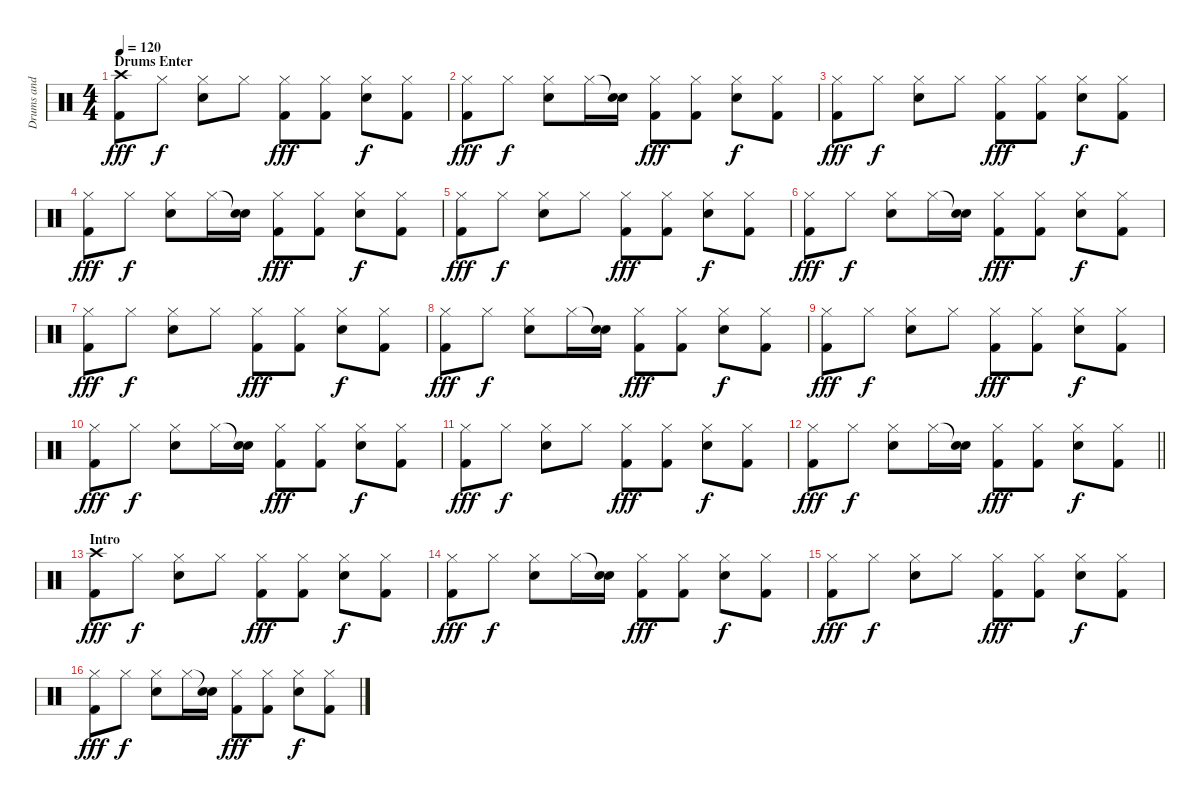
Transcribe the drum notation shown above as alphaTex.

\track ("Drums and Percussion" "Drums and ") {instrument percussion}
\staff {score}
\articulation defaults
\ts (4 4)
\section ("" "Drums Enter")
\tempo 120
\clef neutral
\ks c
("Crash high (hit)" "Kick (hit) 2").8{dy fff} "Hi-Hat (closed)".8{dy f} ("Hi-Hat (closed)" "Snare (hit) 2").8 "Hi-Hat (closed)".8 ("Hi-Hat (closed)" "Kick (hit) 2").8{dy fff} ("Hi-Hat (closed)" "Kick (hit) 2").8 ("Hi-Hat (closed)" "Snare (hit) 2").8{dy f} ("Hi-Hat (closed)" "Kick (hit) 2").8 |
("Hi-Hat (closed)" "Kick (hit) 2").8{dy fff} "Hi-Hat (closed)".8{dy f} ("Hi-Hat (closed)" "Snare (hit) 2").8 "Hi-Hat (closed)".16 ("Snare (hit)"{t} "Snare (hit) 2").16 ("Hi-Hat (closed)" "Kick (hit) 2").8{dy fff} ("Hi-Hat (closed)" "Kick (hit) 2").8 ("Hi-Hat (closed)" "Snare (hit) 2").8{dy f} ("Hi-Hat (closed)" "Kick (hit) 2").8 |
("Hi-Hat (closed)" "Kick (hit) 2").8{dy fff} "Hi-Hat (closed)".8{dy f} ("Hi-Hat (closed)" "Snare (hit) 2").8 "Hi-Hat (closed)".8 ("Hi-Hat (closed)" "Kick (hit) 2").8{dy fff} ("Hi-Hat (closed)" "Kick (hit) 2").8 ("Hi-Hat (closed)" "Snare (hit) 2").8{dy f} ("Hi-Hat (closed)" "Kick (hit) 2").8 |
("Hi-Hat (closed)" "Kick (hit) 2").8{dy fff} "Hi-Hat (closed)".8{dy f} ("Hi-Hat (closed)" "Snare (hit) 2").8 "Hi-Hat (closed)".16 ("Snare (hit)"{t} "Snare (hit) 2").16 ("Hi-Hat (closed)" "Kick (hit) 2").8{dy fff} ("Hi-Hat (closed)" "Kick (hit) 2").8 ("Hi-Hat (closed)" "Snare (hit) 2").8{dy f} ("Hi-Hat (closed)" "Kick (hit) 2").8 |
("Hi-Hat (closed)" "Kick (hit) 2").8{dy fff} "Hi-Hat (closed)".8{dy f} ("Hi-Hat (closed)" "Snare (hit) 2").8 "Hi-Hat (closed)".8 ("Hi-Hat (closed)" "Kick (hit) 2").8{dy fff} ("Hi-Hat (closed)" "Kick (hit) 2").8 ("Hi-Hat (closed)" "Snare (hit) 2").8{dy f} ("Hi-Hat (closed)" "Kick (hit) 2").8 |
("Hi-Hat (closed)" "Kick (hit) 2").8{dy fff} "Hi-Hat (closed)".8{dy f} ("Hi-Hat (closed)" "Snare (hit) 2").8 "Hi-Hat (closed)".16 ("Snare (hit)"{t} "Snare (hit) 2").16 ("Hi-Hat (closed)" "Kick (hit) 2").8{dy fff} ("Hi-Hat (closed)" "Kick (hit) 2").8 ("Hi-Hat (closed)" "Snare (hit) 2").8{dy f} ("Hi-Hat (closed)" "Kick (hit) 2").8 |
("Hi-Hat (closed)" "Kick (hit) 2").8{dy fff} "Hi-Hat (closed)".8{dy f} ("Hi-Hat (closed)" "Snare (hit) 2").8 "Hi-Hat (closed)".8 ("Hi-Hat (closed)" "Kick (hit) 2").8{dy fff} ("Hi-Hat (closed)" "Kick (hit) 2").8 ("Hi-Hat (closed)" "Snare (hit) 2").8{dy f} ("Hi-Hat (closed)" "Kick (hit) 2").8 |
("Hi-Hat (closed)" "Kick (hit) 2").8{dy fff} "Hi-Hat (closed)".8{dy f} ("Hi-Hat (closed)" "Snare (hit) 2").8 "Hi-Hat (closed)".16 ("Snare (hit)"{t} "Snare (hit) 2").16 ("Hi-Hat (closed)" "Kick (hit) 2").8{dy fff} ("Hi-Hat (closed)" "Kick (hit) 2").8 ("Hi-Hat (closed)" "Snare (hit) 2").8{dy f} ("Hi-Hat (closed)" "Kick (hit) 2").8 |
("Hi-Hat (closed)" "Kick (hit) 2").8{dy fff} "Hi-Hat (closed)".8{dy f} ("Hi-Hat (closed)" "Snare (hit) 2").8 "Hi-Hat (closed)".8 ("Hi-Hat (closed)" "Kick (hit) 2").8{dy fff} ("Hi-Hat (closed)" "Kick (hit) 2").8 ("Hi-Hat (closed)" "Snare (hit) 2").8{dy f} ("Hi-Hat (closed)" "Kick (hit) 2").8 |
("Hi-Hat (closed)" "Kick (hit) 2").8{dy fff} "Hi-Hat (closed)".8{dy f} ("Hi-Hat (closed)" "Snare (hit) 2").8 "Hi-Hat (closed)".16 ("Snare (hit)"{t} "Snare (hit) 2").16 ("Hi-Hat (closed)" "Kick (hit) 2").8{dy fff} ("Hi-Hat (closed)" "Kick (hit) 2").8 ("Hi-Hat (closed)" "Snare (hit) 2").8{dy f} ("Hi-Hat (closed)" "Kick (hit) 2").8 |
("Hi-Hat (closed)" "Kick (hit) 2").8{dy fff} "Hi-Hat (closed)".8{dy f} ("Hi-Hat (closed)" "Snare (hit) 2").8 "Hi-Hat (closed)".8 ("Hi-Hat (closed)" "Kick (hit) 2").8{dy fff} ("Hi-Hat (closed)" "Kick (hit) 2").8 ("Hi-Hat (closed)" "Snare (hit) 2").8{dy f} ("Hi-Hat (closed)" "Kick (hit) 2").8 |
\barLineRight lightlight
("Hi-Hat (closed)" "Kick (hit) 2").8{dy fff} "Hi-Hat (closed)".8{dy f} ("Hi-Hat (closed)" "Snare (hit) 2").8 "Hi-Hat (closed)".16 ("Snare (hit)"{t} "Snare (hit) 2").16 ("Hi-Hat (closed)" "Kick (hit) 2").8{dy fff} ("Hi-Hat (closed)" "Kick (hit) 2").8 ("Hi-Hat (closed)" "Snare (hit) 2").8{dy f} ("Hi-Hat (closed)" "Kick (hit) 2").8 |
\section ("" "Intro")
("Crash high (hit)" "Kick (hit) 2").8{dy fff} "Hi-Hat (closed)".8{dy f} ("Hi-Hat (closed)" "Snare (hit) 2").8 "Hi-Hat (closed)".8 ("Hi-Hat (closed)" "Kick (hit) 2").8{dy fff} ("Hi-Hat (closed)" "Kick (hit) 2").8 ("Hi-Hat (closed)" "Snare (hit) 2").8{dy f} ("Hi-Hat (closed)" "Kick (hit) 2").8 |
("Hi-Hat (closed)" "Kick (hit) 2").8{dy fff} "Hi-Hat (closed)".8{dy f} ("Hi-Hat (closed)" "Snare (hit) 2").8 "Hi-Hat (closed)".16 ("Snare (hit)"{t} "Snare (hit) 2").16 ("Hi-Hat (closed)" "Kick (hit) 2").8{dy fff} ("Hi-Hat (closed)" "Kick (hit) 2").8 ("Hi-Hat (closed)" "Snare (hit) 2").8{dy f} ("Hi-Hat (closed)" "Kick (hit) 2").8 |
("Hi-Hat (closed)" "Kick (hit) 2").8{dy fff} "Hi-Hat (closed)".8{dy f} ("Hi-Hat (closed)" "Snare (hit) 2").8 "Hi-Hat (closed)".8 ("Hi-Hat (closed)" "Kick (hit) 2").8{dy fff} ("Hi-Hat (closed)" "Kick (hit) 2").8 ("Hi-Hat (closed)" "Snare (hit) 2").8{dy f} ("Hi-Hat (closed)" "Kick (hit) 2").8 |
("Hi-Hat (closed)" "Kick (hit) 2").8{dy fff} "Hi-Hat (closed)".8{dy f} ("Hi-Hat (closed)" "Snare (hit) 2").8 "Hi-Hat (closed)".16 ("Snare (hit)"{t} "Snare (hit) 2").16 ("Hi-Hat (closed)" "Kick (hit) 2").8{dy fff} ("Hi-Hat (closed)" "Kick (hit) 2").8 ("Hi-Hat (closed)" "Snare (hit) 2").8{dy f} ("Hi-Hat (closed)" "Kick (hit) 2").8
